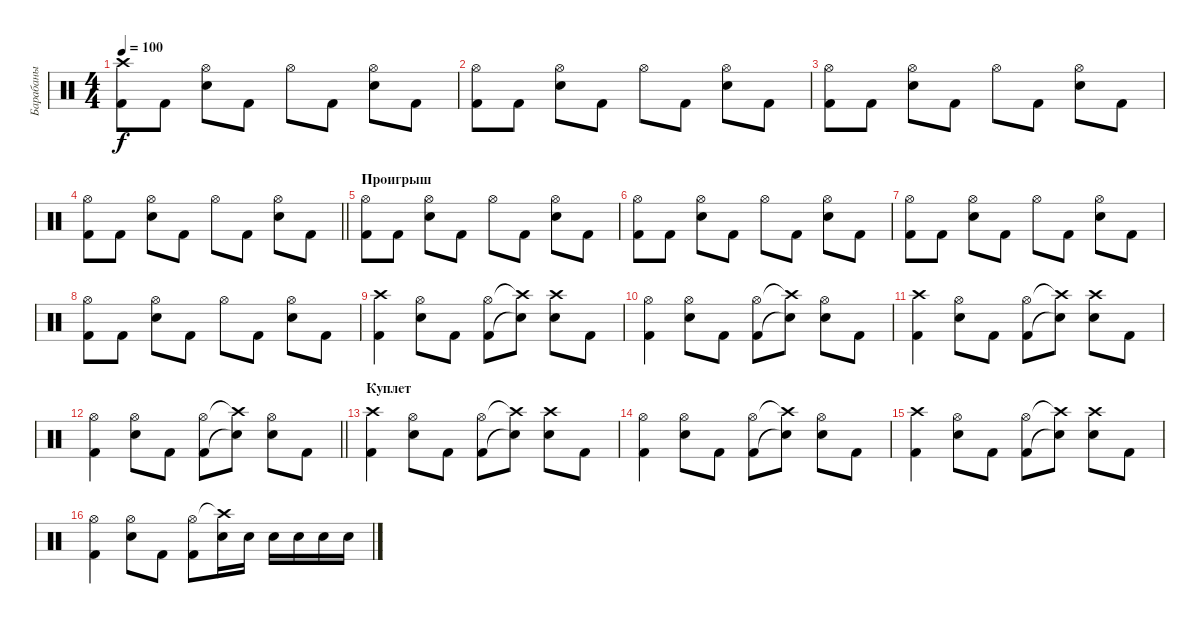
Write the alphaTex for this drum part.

\track ("Барабаны" "Барабаны") {instrument percussion}
\staff {score}
\articulation defaults
\ts (4 4)
\tempo 100
\clef neutral
\ks c
("Crash high (hit)" "Kick (hit) 2").8{dy f} "Kick (hit) 2".8 ("Hi-Hat (open)" "Electric Snare (hit)").8 "Kick (hit) 2".8 "Hi-Hat (open)".8 "Kick (hit) 2".8 ("Hi-Hat (open)" "Electric Snare (hit)").8 "Kick (hit) 2".8 |
("Hi-Hat (open)" "Kick (hit) 2").8 "Kick (hit) 2".8 ("Hi-Hat (open)" "Electric Snare (hit)").8 "Kick (hit) 2".8 "Hi-Hat (open)".8 "Kick (hit) 2".8 ("Hi-Hat (open)" "Electric Snare (hit)").8 "Kick (hit) 2".8 |
("Hi-Hat (open)" "Kick (hit) 2").8 "Kick (hit) 2".8 ("Hi-Hat (open)" "Electric Snare (hit)").8 "Kick (hit) 2".8 "Hi-Hat (open)".8 "Kick (hit) 2".8 ("Hi-Hat (open)" "Electric Snare (hit)").8 "Kick (hit) 2".8 |
\barLineRight lightlight
("Hi-Hat (open)" "Kick (hit) 2").8 "Kick (hit) 2".8 ("Hi-Hat (open)" "Electric Snare (hit)").8 "Kick (hit) 2".8 "Hi-Hat (open)".8 "Kick (hit) 2".8 ("Hi-Hat (open)" "Electric Snare (hit)").8 "Kick (hit) 2".8 |
\section ("" "Проигрыш")
("Hi-Hat (open)" "Kick (hit) 2").8 "Kick (hit) 2".8 ("Hi-Hat (open)" "Electric Snare (hit)").8 "Kick (hit) 2".8 "Hi-Hat (open)".8 "Kick (hit) 2".8 ("Hi-Hat (open)" "Electric Snare (hit)").8 "Kick (hit) 2".8 |
("Hi-Hat (open)" "Kick (hit) 2").8 "Kick (hit) 2".8 ("Hi-Hat (open)" "Electric Snare (hit)").8 "Kick (hit) 2".8 "Hi-Hat (open)".8 "Kick (hit) 2".8 ("Hi-Hat (open)" "Electric Snare (hit)").8 "Kick (hit) 2".8 |
("Hi-Hat (open)" "Kick (hit) 2").8 "Kick (hit) 2".8 ("Hi-Hat (open)" "Electric Snare (hit)").8 "Kick (hit) 2".8 "Hi-Hat (open)".8 "Kick (hit) 2".8 ("Hi-Hat (open)" "Electric Snare (hit)").8 "Kick (hit) 2".8 |
("Hi-Hat (open)" "Kick (hit) 2").8 "Kick (hit) 2".8 ("Hi-Hat (open)" "Electric Snare (hit)").8 "Kick (hit) 2".8 "Hi-Hat (open)".8 "Kick (hit) 2".8 ("Hi-Hat (open)" "Electric Snare (hit)").8 "Kick (hit) 2".8 |
("Crash high (hit)" "Kick (hit) 2").4 ("Hi-Hat (open)" "Electric Snare (hit)").8 "Kick (hit) 2".8 ("Hi-Hat (open)" "Kick (hit) 2").8 ("Crash high (hit)"{t} "Electric Snare (hit)"{t}).8 ("Crash high (hit)" "Electric Snare (hit)").8 "Kick (hit) 2".8 |
("Hi-Hat (open)" "Kick (hit) 2").4 ("Hi-Hat (open)" "Electric Snare (hit)").8 "Kick (hit) 2".8 ("Hi-Hat (open)" "Kick (hit) 2").8 ("Crash high (hit)"{t} "Electric Snare (hit)"{t}).8 ("Hi-Hat (open)" "Electric Snare (hit)").8 "Kick (hit) 2".8 |
("Crash high (hit)" "Kick (hit) 2").4 ("Hi-Hat (open)" "Electric Snare (hit)").8 "Kick (hit) 2".8 ("Hi-Hat (open)" "Kick (hit) 2").8 ("Crash high (hit)"{t} "Electric Snare (hit)"{t}).8 ("Crash high (hit)" "Electric Snare (hit)").8 "Kick (hit) 2".8 |
\barLineRight lightlight
("Hi-Hat (open)" "Kick (hit) 2").4 ("Hi-Hat (open)" "Electric Snare (hit)").8 "Kick (hit) 2".8 ("Hi-Hat (open)" "Kick (hit) 2").8 ("Crash high (hit)"{t} "Electric Snare (hit)"{t}).8 ("Hi-Hat (open)" "Electric Snare (hit)").8 "Kick (hit) 2".8 |
\section ("" "Куплет")
("Crash high (hit)" "Kick (hit) 2").4 ("Hi-Hat (open)" "Electric Snare (hit)").8 "Kick (hit) 2".8 ("Hi-Hat (open)" "Kick (hit) 2").8 ("Crash high (hit)"{t} "Electric Snare (hit)"{t}).8 ("Crash high (hit)" "Electric Snare (hit)").8 "Kick (hit) 2".8 |
("Hi-Hat (open)" "Kick (hit) 2").4 ("Hi-Hat (open)" "Electric Snare (hit)").8 "Kick (hit) 2".8 ("Hi-Hat (open)" "Kick (hit) 2").8 ("Crash high (hit)"{t} "Electric Snare (hit)"{t}).8 ("Hi-Hat (open)" "Electric Snare (hit)").8 "Kick (hit) 2".8 |
("Crash high (hit)" "Kick (hit) 2").4 ("Hi-Hat (open)" "Electric Snare (hit)").8 "Kick (hit) 2".8 ("Hi-Hat (open)" "Kick (hit) 2").8 ("Crash high (hit)"{t} "Electric Snare (hit)"{t}).8 ("Crash high (hit)" "Electric Snare (hit)").8 "Kick (hit) 2".8 |
("Hi-Hat (open)" "Kick (hit) 2").4 ("Hi-Hat (open)" "Electric Snare (hit)").8 "Kick (hit) 2".8 ("Hi-Hat (open)" "Kick (hit) 2").8 ("Crash high (hit)"{t} "Electric Snare (hit)").16 "Electric Snare (hit)".16 "Electric Snare (hit)".16 "Electric Snare (hit)".16 "Electric Snare (hit)".16 "Electric Snare (hit)".16
